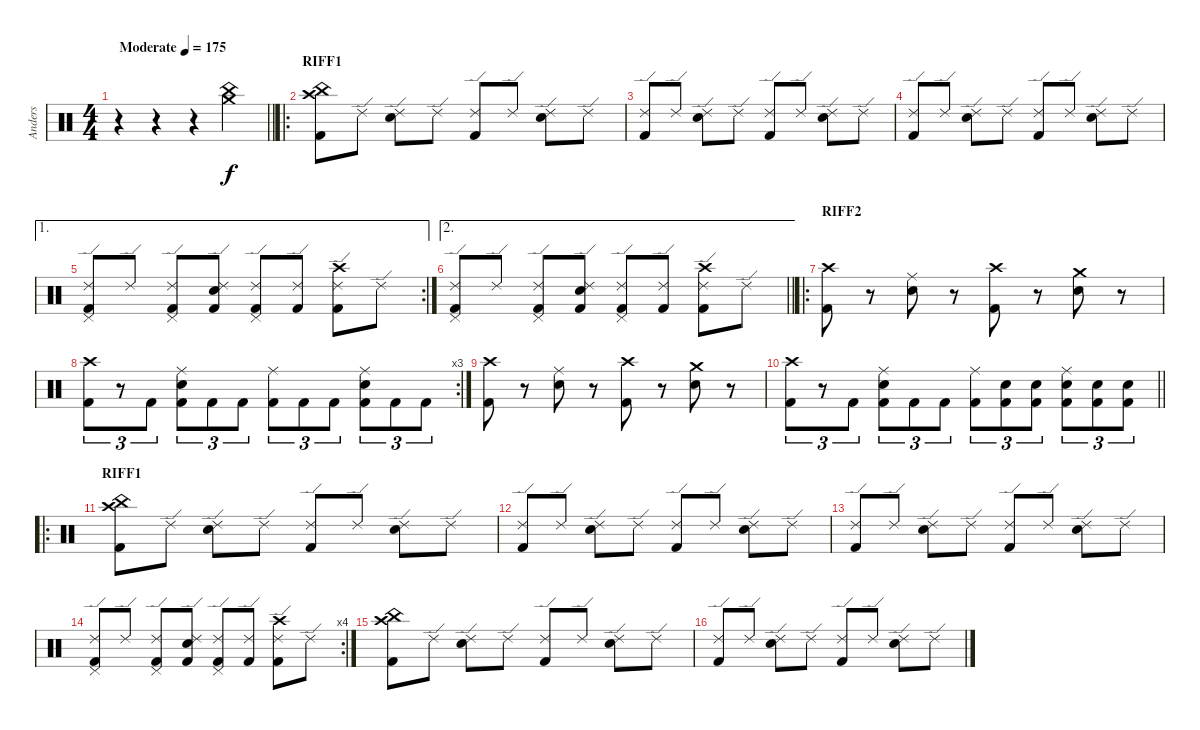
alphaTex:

\track ("Anders " "Anders ") {instrument percussion}
\staff {score}
\articulation defaults
\ts (4 4)
\tempo (175 "Moderate")
\clef neutral
\barLineRight lightlight
\ks c
r.4{dy f} r.4 r.4 ("Crash medium (hit)" "China (hit)").4 |
\ro
\section ("" "RIFF1")
("Crash high (hit)" "China (hit)" "Kick (hit) 2").8 "Ride (edge) 2".8 ("Ride (edge) 2" "Snare (hit) 2").8 "Ride (edge) 2".8 ("Ride (edge) 2" "Kick (hit) 2").8 "Ride (edge) 2".8 ("Ride (edge) 2" "Snare (hit) 2").8 "Ride (edge) 2".8 |
("Ride (edge) 2" "Kick (hit) 2").8 "Ride (edge) 2".8 ("Ride (edge) 2" "Snare (hit) 2").8 "Ride (edge) 2".8 ("Ride (edge) 2" "Kick (hit) 2").8 "Ride (edge) 2".8 ("Ride (edge) 2" "Snare (hit) 2").8 "Ride (edge) 2".8 |
("Ride (edge) 2" "Kick (hit) 2").8 "Ride (edge) 2".8 ("Ride (edge) 2" "Snare (hit) 2").8 "Ride (edge) 2".8 ("Ride (edge) 2" "Kick (hit) 2").8 "Ride (edge) 2".8 ("Ride (edge) 2" "Snare (hit) 2").8 "Ride (edge) 2".8 |
\ae 1
\rc 2
("Ride (edge) 2" "Pedal Hi-Hat (hit)" "Kick (hit) 2").8 "Ride (edge) 2".8 ("Ride (edge) 2" "Pedal Hi-Hat (hit)" "Kick (hit) 2").8 ("Ride (edge) 2" "Snare (hit) 2" "Kick (hit) 2").8 ("Ride (edge) 2" "Pedal Hi-Hat (hit)" "Kick (hit) 2").8 ("Ride (edge) 2" "Kick (hit) 2").8 ("Ride (edge) 2" "Crash high (hit)" "Kick (hit) 2").8 "Ride (edge) 2".8 |
\ae 2
\barLineRight lightlight
("Ride (edge) 2" "Pedal Hi-Hat (hit)" "Kick (hit) 2").8 "Ride (edge) 2".8 ("Ride (edge) 2" "Pedal Hi-Hat (hit)" "Kick (hit) 2").8 ("Ride (edge) 2" "Snare (hit) 2" "Kick (hit) 2").8 ("Ride (edge) 2" "Pedal Hi-Hat (hit)" "Kick (hit) 2").8 ("Ride (edge) 2" "Kick (hit) 2").8 ("Ride (edge) 2" "Crash high (hit)" "Kick (hit) 2").8 "Ride (edge) 2".8 |
\ro
\section ("" "RIFF2")
("Crash high (hit)" "Kick (hit) 2").8 r.8 ("Ride (middle)" "Snare (hit) 2").8 r.8 ("Crash high (hit)" "Kick (hit) 2").8 r.8 ("Crash medium (hit)" "Snare (hit) 2").8 r.8 |
\rc 3
("Crash high (hit)" "Kick (hit) 2").8{tu (3 2)} r.8{tu (3 2)} "Kick (hit) 2".8{tu (3 2)} ("Ride (middle)" "Snare (hit) 2" "Kick (hit) 2").8{tu (3 2)} "Kick (hit) 2".8{tu (3 2)} "Kick (hit) 2".8{tu (3 2)} ("Ride (middle)" "Kick (hit) 2").8{tu (3 2)} "Kick (hit) 2".8{tu (3 2)} "Kick (hit) 2".8{tu (3 2)} ("Ride (middle)" "Snare (hit) 2" "Kick (hit) 2").8{tu (3 2)} "Kick (hit) 2".8{tu (3 2)} "Kick (hit) 2".8{tu (3 2)} |
("Crash high (hit)" "Kick (hit) 2").8 r.8 ("Ride (middle)" "Snare (hit) 2").8 r.8 ("Crash high (hit)" "Kick (hit) 2").8 r.8 ("Crash medium (hit)" "Snare (hit) 2").8 r.8 |
\barLineRight lightlight
("Crash high (hit)" "Kick (hit) 2").8{tu (3 2)} r.8{tu (3 2)} "Kick (hit) 2".8{tu (3 2)} ("Ride (middle)" "Snare (hit) 2" "Kick (hit) 2").8{tu (3 2)} "Kick (hit) 2".8{tu (3 2)} "Kick (hit) 2".8{tu (3 2)} ("Ride (middle)" "Kick (hit) 2").8{tu (3 2)} ("Snare (hit) 2" "Kick (hit) 2").8{tu (3 2)} ("Snare (hit) 2" "Kick (hit) 2").8{tu (3 2)} ("Ride (middle)" "Snare (hit) 2" "Kick (hit) 2").8{tu (3 2)} ("Snare (hit) 2" "Kick (hit) 2").8{tu (3 2)} ("Snare (hit) 2" "Kick (hit) 2").8{tu (3 2)} |
\ro
\section ("" "RIFF1")
("Crash high (hit)" "China (hit)" "Kick (hit) 2").8 "Ride (edge) 2".8 ("Ride (edge) 2" "Snare (hit) 2").8 "Ride (edge) 2".8 ("Ride (edge) 2" "Kick (hit) 2").8 "Ride (edge) 2".8 ("Ride (edge) 2" "Snare (hit) 2").8 "Ride (edge) 2".8 |
("Ride (edge) 2" "Kick (hit) 2").8 "Ride (edge) 2".8 ("Ride (edge) 2" "Snare (hit) 2").8 "Ride (edge) 2".8 ("Ride (edge) 2" "Kick (hit) 2").8 "Ride (edge) 2".8 ("Ride (edge) 2" "Snare (hit) 2").8 "Ride (edge) 2".8 |
("Ride (edge) 2" "Kick (hit) 2").8 "Ride (edge) 2".8 ("Ride (edge) 2" "Snare (hit) 2").8 "Ride (edge) 2".8 ("Ride (edge) 2" "Kick (hit) 2").8 "Ride (edge) 2".8 ("Ride (edge) 2" "Snare (hit) 2").8 "Ride (edge) 2".8 |
\rc 4
("Ride (edge) 2" "Pedal Hi-Hat (hit)" "Kick (hit) 2").8 "Ride (edge) 2".8 ("Ride (edge) 2" "Pedal Hi-Hat (hit)" "Kick (hit) 2").8 ("Ride (edge) 2" "Snare (hit) 2" "Kick (hit) 2").8 ("Ride (edge) 2" "Pedal Hi-Hat (hit)" "Kick (hit) 2").8 ("Ride (edge) 2" "Kick (hit) 2").8 ("Ride (edge) 2" "Crash high (hit)" "Kick (hit) 2").8 "Ride (edge) 2".8 |
("Crash high (hit)" "China (hit)" "Kick (hit) 2").8 "Ride (edge) 2".8 ("Ride (edge) 2" "Snare (hit) 2").8 "Ride (edge) 2".8 ("Ride (edge) 2" "Kick (hit) 2").8 "Ride (edge) 2".8 ("Ride (edge) 2" "Snare (hit) 2").8 "Ride (edge) 2".8 |
("Ride (edge) 2" "Kick (hit) 2").8 "Ride (edge) 2".8 ("Ride (edge) 2" "Snare (hit) 2").8 "Ride (edge) 2".8 ("Ride (edge) 2" "Kick (hit) 2").8 "Ride (edge) 2".8 ("Ride (edge) 2" "Snare (hit) 2").8 "Ride (edge) 2".8
